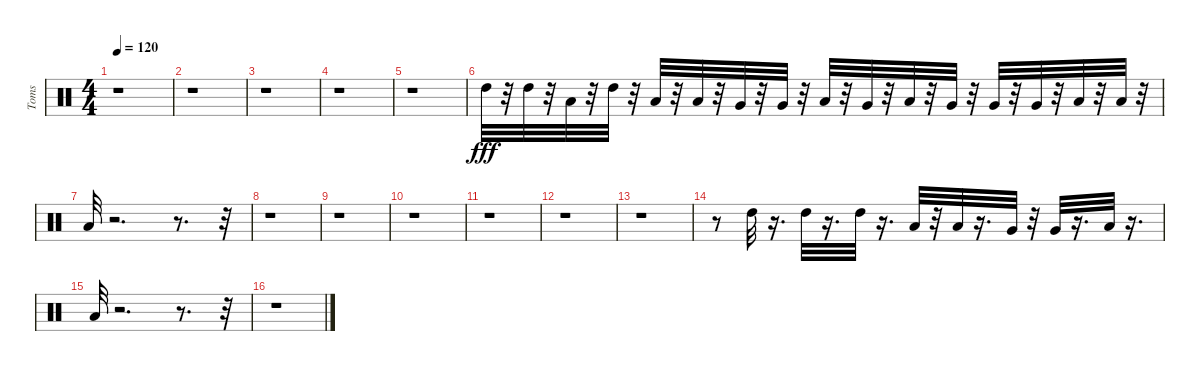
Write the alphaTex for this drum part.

\track ("Toms" "Toms") {instrument percussion}
\staff {score}
\articulation defaults
\ts (4 4)
\tempo 120
\clef neutral
\ks c
r.1{dy fff} |
r.1 |
r.1 |
r.1 |
r.1 |
"High Tom (hit)".32 r.32 "High Tom (hit)".32 r.32 "Low Tom (hit)".32 r.32 "High Tom (hit)".32 r.32 "Low Tom (hit)".32 r.32 "Low Tom (hit)".32 r.32 "Very Low Tom (hit)".32 r.32 "Very Low Tom (hit)".32 r.32 "Low Floor Tom (hit)".32 r.32 "Very Low Tom (hit)".32 r.32 "Low Floor Tom (hit)".32 r.32 "Very Low Tom (hit)".32 r.32 "Very Low Tom (hit)".32 r.32 "Very Low Tom (hit)".32 r.32 "Low Floor Tom (hit)".32 r.32 "Low Floor Tom (hit)".32 r.32 |
"Low Floor Tom (hit)".32 r.2{d} r.8{d} r.32 |
r.1 |
r.1 |
r.1 |
r.1 |
r.1 |
r.1 |
r.8 "High Tom (hit)".32 r.16{d} "High Tom (hit)".32 r.16{d} "High Tom (hit)".32 r.16{d} "Low Tom (hit)".32 r.32 "Low Tom (hit)".32 r.16{d} "Very Low Tom (hit)".32 r.32 "Very Low Tom (hit)".32 r.16{d} "Low Floor Tom (hit)".32 r.16{d} |
"Low Floor Tom (hit)".32 r.2{d} r.8{d} r.32 |
r.1
